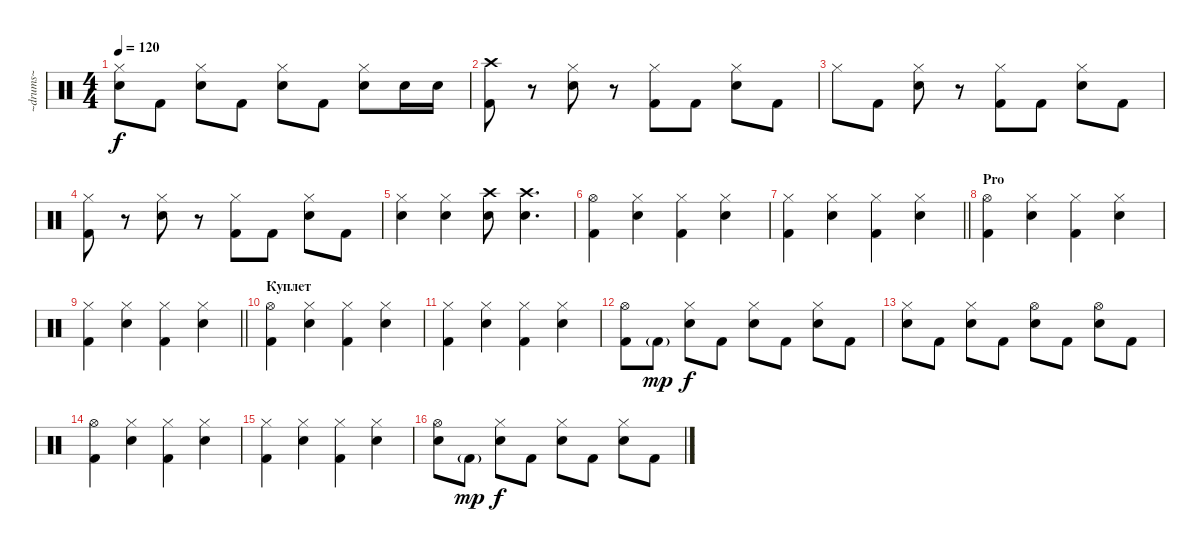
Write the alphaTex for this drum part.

\track ("~drums~" "~drums~") {instrument percussion}
\staff {score}
\articulation defaults
\ts (4 4)
\tempo 120
\clef neutral
\ks c
("Hi-Hat (closed)" "Snare (hit) 2").8{dy f} "Kick (hit) 2".8 ("Hi-Hat (closed)" "Snare (hit) 2").8 "Kick (hit) 2".8 ("Hi-Hat (closed)" "Snare (hit) 2").8 "Kick (hit) 2".8 ("Hi-Hat (closed)" "Snare (hit) 2").8 "Snare (hit) 2".16 "Snare (hit) 2".16 |
("Crash high (hit)" "Kick (hit) 2").8 r.8 ("Hi-Hat (closed)" "Snare (hit) 2").8 r.8 ("Hi-Hat (closed)" "Kick (hit) 2").8 "Kick (hit) 2".8 ("Hi-Hat (closed)" "Snare (hit) 2").8 "Kick (hit) 2".8 |
"Hi-Hat (closed)".8 "Kick (hit) 2".8 ("Hi-Hat (closed)" "Snare (hit) 2").8 r.8 ("Hi-Hat (closed)" "Kick (hit) 2").8 "Kick (hit) 2".8 ("Hi-Hat (closed)" "Snare (hit) 2").8 "Kick (hit) 2".8 |
("Hi-Hat (closed)" "Kick (hit) 2").8 r.8 ("Hi-Hat (closed)" "Snare (hit) 2").8 r.8 ("Hi-Hat (closed)" "Kick (hit) 2").8 "Kick (hit) 2".8 ("Hi-Hat (closed)" "Snare (hit) 2").8 "Kick (hit) 2".8 |
("Hi-Hat (closed)" "Snare (hit) 2").4 ("Hi-Hat (closed)" "Snare (hit) 2").4 ("Crash high (hit)" "Snare (hit) 2").8 ("Crash high (hit)" "Snare (hit) 2").4{d} |
("Hi-Hat (open)" "Kick (hit) 2").4 ("Hi-Hat (closed)" "Snare (hit) 2").4 ("Hi-Hat (closed)" "Kick (hit) 2").4 ("Hi-Hat (closed)" "Snare (hit) 2").4 |
\barLineRight lightlight
("Hi-Hat (closed)" "Kick (hit) 2").4 ("Hi-Hat (closed)" "Snare (hit) 2").4 ("Hi-Hat (closed)" "Kick (hit) 2").4 ("Hi-Hat (closed)" "Snare (hit) 2").4 |
\section ("" "Pro")
("Hi-Hat (open)" "Kick (hit) 2").4 ("Hi-Hat (closed)" "Snare (hit) 2").4 ("Hi-Hat (closed)" "Kick (hit) 2").4 ("Hi-Hat (closed)" "Snare (hit) 2").4 |
\barLineRight lightlight
("Hi-Hat (closed)" "Kick (hit) 2").4 ("Hi-Hat (closed)" "Snare (hit) 2").4 ("Hi-Hat (closed)" "Kick (hit) 2").4 ("Hi-Hat (closed)" "Snare (hit) 2").4 |
\section ("" "Куплет")
("Hi-Hat (open)" "Kick (hit) 2").4 ("Hi-Hat (closed)" "Snare (hit) 2").4 ("Hi-Hat (closed)" "Kick (hit) 2").4 ("Hi-Hat (closed)" "Snare (hit) 2").4 |
("Hi-Hat (closed)" "Kick (hit) 2").4 ("Hi-Hat (closed)" "Snare (hit) 2").4 ("Hi-Hat (closed)" "Kick (hit) 2").4 ("Hi-Hat (closed)" "Snare (hit) 2").4 |
("Hi-Hat (open)" "Kick (hit) 2").8 "Kick (hit) 2"{g}.8{dy mp} ("Hi-Hat (closed)" "Snare (hit) 2").8{dy f} "Kick (hit) 2".8 ("Hi-Hat (closed)" "Snare (hit) 2").8 "Kick (hit) 2".8 ("Hi-Hat (closed)" "Snare (hit) 2").8 "Kick (hit) 2".8 |
("Hi-Hat (closed)" "Snare (hit) 2").8 "Kick (hit) 2".8 ("Hi-Hat (closed)" "Snare (hit) 2").8 "Kick (hit) 2".8 ("Hi-Hat (open)" "Snare (hit) 2").8 "Kick (hit) 2".8 ("Hi-Hat (open)" "Snare (hit) 2").8 "Kick (hit) 2".8 |
("Hi-Hat (open)" "Kick (hit) 2").4 ("Hi-Hat (closed)" "Snare (hit) 2").4 ("Hi-Hat (closed)" "Kick (hit) 2").4 ("Hi-Hat (closed)" "Snare (hit) 2").4 |
("Hi-Hat (closed)" "Kick (hit) 2").4 ("Hi-Hat (closed)" "Snare (hit) 2").4 ("Hi-Hat (closed)" "Kick (hit) 2").4 ("Hi-Hat (closed)" "Snare (hit) 2").4 |
("Hi-Hat (open)" "Snare (hit) 2").8 "Kick (hit) 2"{g}.8{dy mp} ("Hi-Hat (closed)" "Snare (hit) 2").8{dy f} "Kick (hit) 2".8 ("Hi-Hat (closed)" "Snare (hit) 2").8 "Kick (hit) 2".8 ("Hi-Hat (closed)" "Snare (hit) 2").8 "Kick (hit) 2".8
